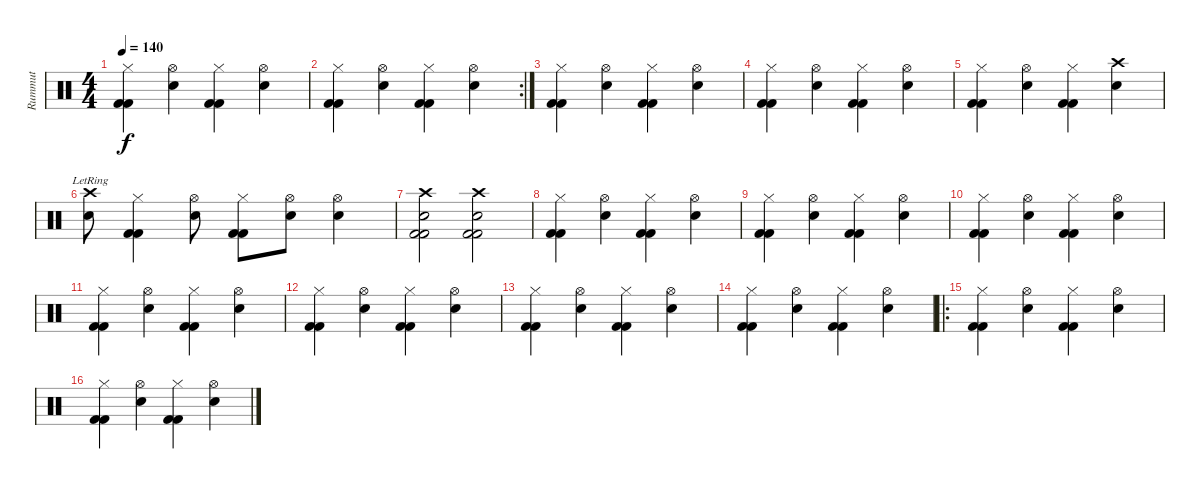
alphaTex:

\track ("Rummut" "Rummut") {instrument percussion}
\staff {score}
\articulation defaults
\ts (4 4)
\tempo 140
\clef neutral
\ks c
("Hi-Hat (closed)" "Kick (hit) 2" "Kick (hit) 2").4{dy f} ("Hi-Hat (open)" "Electric Snare (hit)").4 ("Hi-Hat (closed)" "Kick (hit) 2" "Kick (hit) 2").4 ("Hi-Hat (open)" "Electric Snare (hit)").4 |
\rc 2
("Hi-Hat (closed)" "Kick (hit) 2" "Kick (hit) 2").4 ("Hi-Hat (open)" "Electric Snare (hit)").4 ("Hi-Hat (closed)" "Kick (hit) 2" "Kick (hit) 2").4 ("Hi-Hat (open)" "Electric Snare (hit)").4 |
("Hi-Hat (closed)" "Kick (hit) 2" "Kick (hit) 2").4 ("Hi-Hat (open)" "Electric Snare (hit)").4 ("Hi-Hat (closed)" "Kick (hit) 2" "Kick (hit) 2").4 ("Hi-Hat (open)" "Electric Snare (hit)").4 |
("Hi-Hat (closed)" "Kick (hit) 2" "Kick (hit) 2").4 ("Hi-Hat (open)" "Electric Snare (hit)").4 ("Hi-Hat (closed)" "Kick (hit) 2" "Kick (hit) 2").4 ("Hi-Hat (open)" "Electric Snare (hit)").4 |
("Hi-Hat (closed)" "Kick (hit) 2" "Kick (hit) 2").4 ("Hi-Hat (open)" "Electric Snare (hit)").4 ("Hi-Hat (closed)" "Kick (hit) 2" "Kick (hit) 2").4 ("Crash high (hit)" "Electric Snare (hit)").4 |
("Crash high (hit)"{lr} "Electric Snare (hit)").8 ("Hi-Hat (closed)" "Kick (hit) 2" "Kick (hit) 2").4 ("Hi-Hat (open)" "Electric Snare (hit)").8 ("Hi-Hat (closed)" "Kick (hit) 2" "Kick (hit) 2").8 ("Hi-Hat (open)" "Snare (hit) 2").8 ("Hi-Hat (open)" "Snare (hit) 2").4 |
("Crash high (hit)" "Electric Snare (hit)" "Kick (hit) 2" "Kick (hit) 2").2 ("Crash high (hit)" "Electric Snare (hit)" "Kick (hit) 2" "Kick (hit) 2").2 |
("Hi-Hat (closed)" "Kick (hit) 2" "Kick (hit) 2").4 ("Hi-Hat (open)" "Electric Snare (hit)").4 ("Hi-Hat (closed)" "Kick (hit) 2" "Kick (hit) 2").4 ("Hi-Hat (open)" "Electric Snare (hit)").4 |
("Hi-Hat (closed)" "Kick (hit) 2" "Kick (hit) 2").4 ("Hi-Hat (open)" "Electric Snare (hit)").4 ("Hi-Hat (closed)" "Kick (hit) 2" "Kick (hit) 2").4 ("Hi-Hat (open)" "Electric Snare (hit)").4 |
("Hi-Hat (closed)" "Kick (hit) 2" "Kick (hit) 2").4 ("Hi-Hat (open)" "Electric Snare (hit)").4 ("Hi-Hat (closed)" "Kick (hit) 2" "Kick (hit) 2").4 ("Hi-Hat (open)" "Electric Snare (hit)").4 |
("Hi-Hat (closed)" "Kick (hit) 2" "Kick (hit) 2").4 ("Hi-Hat (open)" "Electric Snare (hit)").4 ("Hi-Hat (closed)" "Kick (hit) 2" "Kick (hit) 2").4 ("Hi-Hat (open)" "Electric Snare (hit)").4 |
("Hi-Hat (closed)" "Kick (hit) 2" "Kick (hit) 2").4 ("Hi-Hat (open)" "Electric Snare (hit)").4 ("Hi-Hat (closed)" "Kick (hit) 2" "Kick (hit) 2").4 ("Hi-Hat (open)" "Electric Snare (hit)").4 |
("Hi-Hat (closed)" "Kick (hit) 2" "Kick (hit) 2").4 ("Hi-Hat (open)" "Electric Snare (hit)").4 ("Hi-Hat (closed)" "Kick (hit) 2" "Kick (hit) 2").4 ("Hi-Hat (open)" "Electric Snare (hit)").4 |
("Hi-Hat (closed)" "Kick (hit) 2" "Kick (hit) 2").4 ("Hi-Hat (open)" "Electric Snare (hit)").4 ("Hi-Hat (closed)" "Kick (hit) 2" "Kick (hit) 2").4 ("Hi-Hat (open)" "Electric Snare (hit)").4 |
\ro
("Hi-Hat (closed)" "Kick (hit) 2" "Kick (hit) 2").4 ("Hi-Hat (open)" "Electric Snare (hit)").4 ("Hi-Hat (closed)" "Kick (hit) 2" "Kick (hit) 2").4 ("Hi-Hat (open)" "Electric Snare (hit)").4 |
("Hi-Hat (closed)" "Kick (hit) 2" "Kick (hit) 2").4 ("Hi-Hat (open)" "Electric Snare (hit)").4 ("Hi-Hat (closed)" "Kick (hit) 2" "Kick (hit) 2").4 ("Hi-Hat (open)" "Electric Snare (hit)").4
